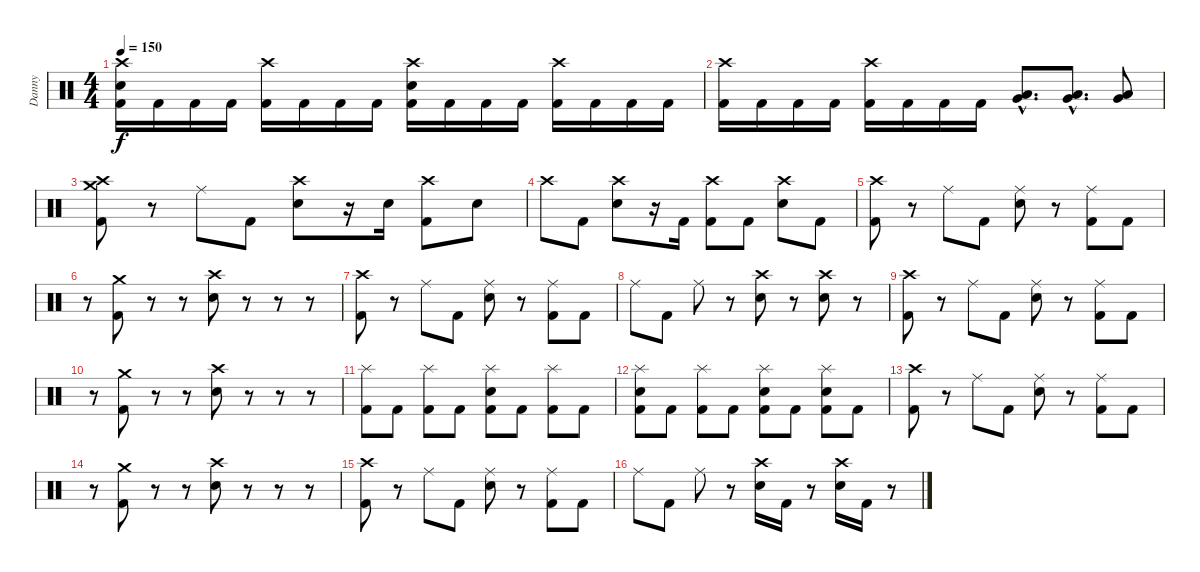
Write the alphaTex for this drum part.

\track ("Danny" "Danny") {instrument percussion}
\staff {score}
\articulation defaults
\ts (4 4)
\tempo 150
\clef neutral
\ks c
("Crash high (hit)" "Snare (hit)"{t} "Kick (hit) 2").16{dy f} "Kick (hit) 2".16 "Kick (hit) 2".16 "Kick (hit) 2".16 ("Crash high (hit)" "Kick (hit) 2").16 "Kick (hit) 2".16 "Kick (hit) 2".16 "Kick (hit) 2".16 ("Crash high (hit)" "Electric Snare (hit)" "Kick (hit) 2").16 "Kick (hit) 2".16 "Kick (hit) 2".16 "Kick (hit) 2".16 ("Crash high (hit)" "Kick (hit) 2").16 "Kick (hit) 2".16 "Kick (hit) 2".16 "Kick (hit) 2".16 |
("Crash high (hit)" "Kick (hit) 2").16 "Kick (hit) 2".16 "Kick (hit) 2".16 "Kick (hit) 2".16 ("Crash high (hit)" "Kick (hit) 2").16 "Kick (hit) 2".16 "Kick (hit) 2".16 "Kick (hit) 2".16 ("Very Low Tom (hit)"{hac} "Low Floor Tom (hit)"{hac}).8{d} ("Very Low Tom (hit)"{hac} "Low Floor Tom (hit)"{hac}).8{d} ("Very Low Tom (hit)" "Low Floor Tom (hit)").8 |
("Crash high (hit)" "Crash medium (hit)" "Kick (hit) 2").8 r.8 "Ride (middle)".8 "Kick (hit) 2".8 ("Crash high (hit)" "Electric Snare (hit)").8 r.16 "Electric Snare (hit)".16 ("Crash high (hit)" "Kick (hit) 2").8 "Electric Snare (hit)".8 |
"Crash high (hit)".8 "Kick (hit) 2".8 ("Crash high (hit)" "Electric Snare (hit)").8 r.16 "Kick (hit) 2".16 ("Crash high (hit)" "Kick (hit) 2").8 "Kick (hit) 2".8 ("Crash high (hit)" "Electric Snare (hit)").8 "Kick (hit) 2".8 |
("Crash high (hit)" "Kick (hit) 2").8 r.8 "Ride (middle)".8 "Kick (hit) 2".8 ("Ride (middle)" "Electric Snare (hit)").8 r.8 ("Ride (middle)" "Kick (hit) 2").8 "Kick (hit) 2".8 |
r.8 ("Crash medium (hit)" "Kick (hit) 2").8 r.8 r.8 ("Crash high (hit)" "Electric Snare (hit)").8 r.8 r.8 r.8 |
("Crash high (hit)" "Kick (hit) 2").8 r.8 "Ride (middle)".8 "Kick (hit) 2".8 ("Ride (middle)" "Electric Snare (hit)").8 r.8 ("Ride (middle)" "Kick (hit) 2").8 "Kick (hit) 2".8 |
"Ride (middle)".8 "Kick (hit) 2".8 "Ride (middle)".8 r.8 ("Crash high (hit)" "Electric Snare (hit)").8 r.8 ("Crash high (hit)" "Electric Snare (hit)").8 r.8 |
("Crash high (hit)" "Kick (hit) 2").8 r.8 "Ride (middle)".8 "Kick (hit) 2".8 ("Ride (middle)" "Electric Snare (hit)").8 r.8 ("Ride (middle)" "Kick (hit) 2").8 "Kick (hit) 2".8 |
r.8 ("Crash medium (hit)" "Kick (hit) 2").8 r.8 r.8 ("Crash high (hit)" "Electric Snare (hit)").8 r.8 r.8 r.8 |
("Splash (hit)" "Kick (hit) 2").8 "Kick (hit) 2".8 ("Splash (hit)" "Kick (hit) 2").8 "Kick (hit) 2".8 ("Splash (hit)" "Electric Snare (hit)" "Kick (hit) 2").8 "Kick (hit) 2".8 ("Splash (hit)" "Kick (hit) 2").8 "Kick (hit) 2".8 |
("Splash (hit)" "Electric Snare (hit)" "Kick (hit) 2").8 "Kick (hit) 2".8 ("Splash (hit)" "Kick (hit) 2").8 "Kick (hit) 2".8 ("Splash (hit)" "Electric Snare (hit)" "Kick (hit) 2").8 "Kick (hit) 2".8 ("Splash (hit)" "Electric Snare (hit)" "Kick (hit) 2").8 "Kick (hit) 2".8 |
("Crash high (hit)" "Kick (hit) 2").8 r.8 "Ride (middle)".8 "Kick (hit) 2".8 ("Ride (middle)" "Electric Snare (hit)").8 r.8 ("Ride (middle)" "Kick (hit) 2").8 "Kick (hit) 2".8 |
r.8 ("Crash medium (hit)" "Kick (hit) 2").8 r.8 r.8 ("Crash high (hit)" "Electric Snare (hit)").8 r.8 r.8 r.8 |
("Crash high (hit)" "Kick (hit) 2").8 r.8 "Ride (middle)".8 "Kick (hit) 2".8 ("Ride (middle)" "Electric Snare (hit)").8 r.8 ("Ride (middle)" "Kick (hit) 2").8 "Kick (hit) 2".8 |
"Ride (middle)".8 "Kick (hit) 2".8 "Ride (middle)".8 r.8 ("Crash high (hit)" "Electric Snare (hit)").16 "Kick (hit) 2".16 r.8 ("Crash high (hit)" "Electric Snare (hit)").16 "Kick (hit) 2".16 r.8
